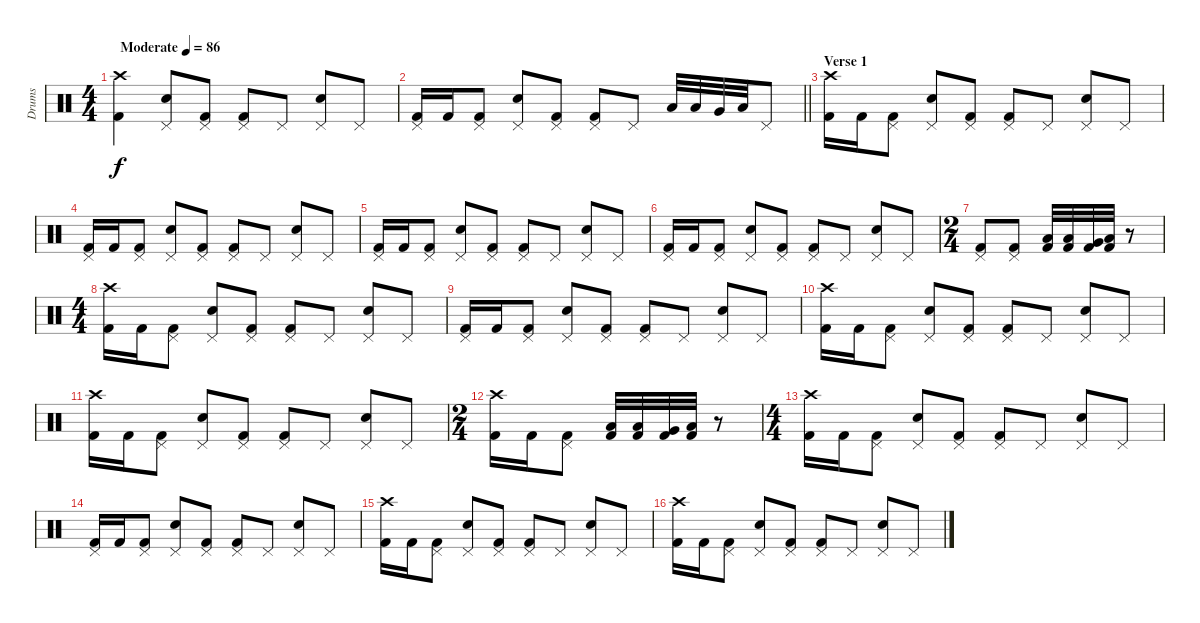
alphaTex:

\track ("Drums" "Drums") {instrument percussion}
\staff {score}
\articulation defaults
\ts (4 4)
\tempo (86 "Moderate")
\clef neutral
\ks c
("Crash high (hit)" "Kick (hit) 2").4{dy f} ("Pedal Hi-Hat (hit)" "Snare (hit) 2").8 ("Pedal Hi-Hat (hit)" "Kick (hit) 2").8 ("Pedal Hi-Hat (hit)" "Kick (hit) 2").8 "Pedal Hi-Hat (hit)".8 ("Pedal Hi-Hat (hit)" "Snare (hit) 2").8 "Pedal Hi-Hat (hit)".8 |
\barLineRight lightlight
("Pedal Hi-Hat (hit)" "Kick (hit) 2").16 "Kick (hit) 2".16 ("Pedal Hi-Hat (hit)" "Kick (hit) 2").8 ("Pedal Hi-Hat (hit)" "Snare (hit) 2").8 ("Pedal Hi-Hat (hit)" "Kick (hit) 2").8 ("Pedal Hi-Hat (hit)" "Kick (hit) 2").8 "Pedal Hi-Hat (hit)".8 "Low Tom (hit)".32 "Low Tom (hit)".32 "Very Low Tom (hit)".32 "Low Floor Tom (hit)".32 "Pedal Hi-Hat (hit)".8 |
\section ("" "Verse 1")
("Crash high (hit)" "Kick (hit) 2").16 "Kick (hit) 2".16 ("Pedal Hi-Hat (hit)" "Kick (hit) 2").8 ("Pedal Hi-Hat (hit)" "Snare (hit) 2").8 ("Pedal Hi-Hat (hit)" "Kick (hit) 2").8 ("Pedal Hi-Hat (hit)" "Kick (hit) 2").8 "Pedal Hi-Hat (hit)".8 ("Pedal Hi-Hat (hit)" "Snare (hit) 2").8 "Pedal Hi-Hat (hit)".8 |
("Pedal Hi-Hat (hit)" "Kick (hit) 2").16 "Kick (hit) 2".16 ("Pedal Hi-Hat (hit)" "Kick (hit) 2").8 ("Pedal Hi-Hat (hit)" "Snare (hit) 2").8 ("Pedal Hi-Hat (hit)" "Kick (hit) 2").8 ("Pedal Hi-Hat (hit)" "Kick (hit) 2").8 "Pedal Hi-Hat (hit)".8 ("Pedal Hi-Hat (hit)" "Snare (hit) 2").8 "Pedal Hi-Hat (hit)".8 |
("Pedal Hi-Hat (hit)" "Kick (hit) 2").16 "Kick (hit) 2".16 ("Pedal Hi-Hat (hit)" "Kick (hit) 2").8 ("Pedal Hi-Hat (hit)" "Snare (hit) 2").8 ("Pedal Hi-Hat (hit)" "Kick (hit) 2").8 ("Pedal Hi-Hat (hit)" "Kick (hit) 2").8 "Pedal Hi-Hat (hit)".8 ("Pedal Hi-Hat (hit)" "Snare (hit) 2").8 "Pedal Hi-Hat (hit)".8 |
("Pedal Hi-Hat (hit)" "Kick (hit) 2").16 "Kick (hit) 2".16 ("Pedal Hi-Hat (hit)" "Kick (hit) 2").8 ("Pedal Hi-Hat (hit)" "Snare (hit) 2").8 ("Pedal Hi-Hat (hit)" "Kick (hit) 2").8 ("Pedal Hi-Hat (hit)" "Kick (hit) 2").8 "Pedal Hi-Hat (hit)".8 ("Pedal Hi-Hat (hit)" "Snare (hit) 2").8 "Pedal Hi-Hat (hit)".8 |
\ts (2 4)
("Pedal Hi-Hat (hit)" "Kick (hit) 2").8 ("Pedal Hi-Hat (hit)" "Kick (hit) 2").8 ("Low Tom (hit)" "Kick (hit) 2").32 ("Low Tom (hit)" "Kick (hit) 2").32 ("Very Low Tom (hit)" "Kick (hit) 2").32 ("Low Floor Tom (hit)" "Kick (hit) 2").32 r.8 |
\ts (4 4)
("Crash high (hit)" "Kick (hit) 2").16 "Kick (hit) 2".16 ("Pedal Hi-Hat (hit)" "Kick (hit) 2").8 ("Pedal Hi-Hat (hit)" "Snare (hit) 2").8 ("Pedal Hi-Hat (hit)" "Kick (hit) 2").8 ("Pedal Hi-Hat (hit)" "Kick (hit) 2").8 "Pedal Hi-Hat (hit)".8 ("Pedal Hi-Hat (hit)" "Snare (hit) 2").8 "Pedal Hi-Hat (hit)".8 |
("Pedal Hi-Hat (hit)" "Kick (hit) 2").16 "Kick (hit) 2".16 ("Pedal Hi-Hat (hit)" "Kick (hit) 2").8 ("Pedal Hi-Hat (hit)" "Snare (hit) 2").8 ("Pedal Hi-Hat (hit)" "Kick (hit) 2").8 ("Pedal Hi-Hat (hit)" "Kick (hit) 2").8 "Pedal Hi-Hat (hit)".8 ("Pedal Hi-Hat (hit)" "Snare (hit) 2").8 "Pedal Hi-Hat (hit)".8 |
("Crash high (hit)" "Kick (hit) 2").16 "Kick (hit) 2".16 ("Pedal Hi-Hat (hit)" "Kick (hit) 2").8 ("Pedal Hi-Hat (hit)" "Snare (hit) 2").8 ("Pedal Hi-Hat (hit)" "Kick (hit) 2").8 ("Pedal Hi-Hat (hit)" "Kick (hit) 2").8 "Pedal Hi-Hat (hit)".8 ("Pedal Hi-Hat (hit)" "Snare (hit) 2").8 "Pedal Hi-Hat (hit)".8 |
("Crash high (hit)" "Kick (hit) 2").16 "Kick (hit) 2".16 ("Pedal Hi-Hat (hit)" "Kick (hit) 2").8 ("Pedal Hi-Hat (hit)" "Snare (hit) 2").8 ("Pedal Hi-Hat (hit)" "Kick (hit) 2").8 ("Pedal Hi-Hat (hit)" "Kick (hit) 2").8 "Pedal Hi-Hat (hit)".8 ("Pedal Hi-Hat (hit)" "Snare (hit) 2").8 "Pedal Hi-Hat (hit)".8 |
\ts (2 4)
("Crash high (hit)" "Kick (hit) 2").16 "Kick (hit) 2".16 ("Pedal Hi-Hat (hit)" "Kick (hit) 2").8 ("Low Tom (hit)" "Kick (hit) 2").32 ("Low Tom (hit)" "Kick (hit) 2").32 ("Very Low Tom (hit)" "Kick (hit) 2").32 ("Low Floor Tom (hit)" "Kick (hit) 2").32 r.8 |
\ts (4 4)
("Crash high (hit)" "Kick (hit) 2").16 "Kick (hit) 2".16 ("Pedal Hi-Hat (hit)" "Kick (hit) 2").8 ("Pedal Hi-Hat (hit)" "Snare (hit) 2").8 ("Pedal Hi-Hat (hit)" "Kick (hit) 2").8 ("Pedal Hi-Hat (hit)" "Kick (hit) 2").8 "Pedal Hi-Hat (hit)".8 ("Pedal Hi-Hat (hit)" "Snare (hit) 2").8 "Pedal Hi-Hat (hit)".8 |
("Pedal Hi-Hat (hit)" "Kick (hit) 2").16 "Kick (hit) 2".16 ("Pedal Hi-Hat (hit)" "Kick (hit) 2").8 ("Pedal Hi-Hat (hit)" "Snare (hit) 2").8 ("Pedal Hi-Hat (hit)" "Kick (hit) 2").8 ("Pedal Hi-Hat (hit)" "Kick (hit) 2").8 "Pedal Hi-Hat (hit)".8 ("Pedal Hi-Hat (hit)" "Snare (hit) 2").8 "Pedal Hi-Hat (hit)".8 |
("Crash high (hit)" "Kick (hit) 2").16 "Kick (hit) 2".16 ("Pedal Hi-Hat (hit)" "Kick (hit) 2").8 ("Pedal Hi-Hat (hit)" "Snare (hit) 2").8 ("Pedal Hi-Hat (hit)" "Kick (hit) 2").8 ("Pedal Hi-Hat (hit)" "Kick (hit) 2").8 "Pedal Hi-Hat (hit)".8 ("Pedal Hi-Hat (hit)" "Snare (hit) 2").8 "Pedal Hi-Hat (hit)".8 |
("Crash high (hit)" "Kick (hit) 2").16 "Kick (hit) 2".16 ("Pedal Hi-Hat (hit)" "Kick (hit) 2").8 ("Pedal Hi-Hat (hit)" "Snare (hit) 2").8 ("Pedal Hi-Hat (hit)" "Kick (hit) 2").8 ("Pedal Hi-Hat (hit)" "Kick (hit) 2").8 "Pedal Hi-Hat (hit)".8 ("Pedal Hi-Hat (hit)" "Snare (hit) 2").8 "Pedal Hi-Hat (hit)".8
